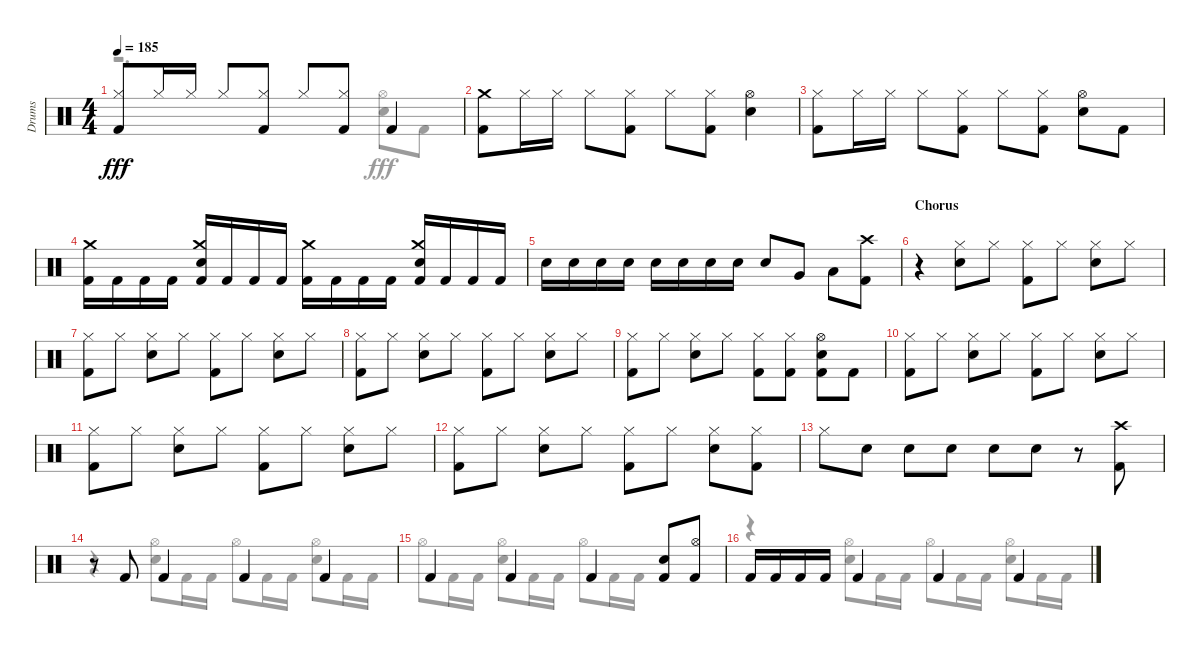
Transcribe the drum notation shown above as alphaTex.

\track ("Drums" "Drums") {instrument percussion}
\staff {score}
\articulation defaults
\voice
\ts (4 4)
\tempo 185
\clef neutral
\ks aminor
("Kick (hit) 2" "Hi-Hat (closed)").8{dy fff} "Hi-Hat (closed)".16 "Hi-Hat (closed)".16 "Hi-Hat (closed)".8 ("Kick (hit) 2" "Hi-Hat (closed)").8 "Hi-Hat (closed)".8 ("Kick (hit) 2" "Hi-Hat (closed)").8 "Kick (hit) 2".4 |
("Kick (hit) 2" "Crash medium (hit)").8 "Hi-Hat (closed)".16 "Hi-Hat (closed)".16 "Hi-Hat (closed)".8 ("Hi-Hat (closed)" "Kick (hit) 2").8 "Hi-Hat (closed)".8 ("Kick (hit) 2" "Hi-Hat (closed)").8 ("Snare (hit) 2" "Hi-Hat (open)").4 |
("Kick (hit) 2" "Hi-Hat (closed)").8 "Hi-Hat (closed)".16 "Hi-Hat (closed)".16 "Hi-Hat (closed)".8 ("Hi-Hat (closed)" "Kick (hit) 2").8 "Hi-Hat (closed)".8 ("Hi-Hat (closed)" "Kick (hit) 2").8 ("Hi-Hat (open)" "Snare (hit) 2").8 "Kick (hit) 2".8 |
("Crash medium (hit)" "Kick (hit) 2").16 "Kick (hit) 2".16 "Kick (hit) 2".16 "Kick (hit) 2".16 ("Crash medium (hit)" "Snare (hit) 2" "Kick (hit) 2").16 "Kick (hit) 2".16 "Kick (hit) 2".16 "Kick (hit) 2".16 ("Crash medium (hit)" "Kick (hit) 2").16 "Kick (hit) 2".16 "Kick (hit) 2".16 "Kick (hit) 2".16 ("Kick (hit) 2" "Snare (hit) 2" "Crash medium (hit)").16 "Kick (hit) 2".16 "Kick (hit) 2".16 "Kick (hit) 2".16 |
"Snare (hit) 2".16 "Snare (hit) 2".16 "Snare (hit) 2".16 "Snare (hit) 2".16 "Snare (hit) 2".16 "Snare (hit) 2".16 "Snare (hit) 2".16 "Snare (hit) 2".16 "Snare (hit) 2".8 "Very Low Tom (hit)".8 "Low Floor Tom (hit)".8 ("Crash high (hit)" "Kick (hit) 2").8 |
\section ("" "Chorus")
r.4 ("Snare (hit) 2" "Hi-Hat (closed)").8 "Hi-Hat (closed)".8 ("Kick (hit) 2" "Hi-Hat (closed)").8 "Hi-Hat (closed)".8 ("Hi-Hat (closed)" "Snare (hit) 2").8 "Hi-Hat (closed)".8 |
("Hi-Hat (closed)" "Kick (hit) 2").8 "Hi-Hat (closed)".8 ("Snare (hit) 2" "Hi-Hat (closed)").8 "Hi-Hat (closed)".8 ("Kick (hit) 2" "Hi-Hat (closed)").8 "Hi-Hat (closed)".8 ("Snare (hit) 2" "Hi-Hat (closed)").8 "Hi-Hat (closed)".8 |
("Kick (hit) 2" "Hi-Hat (closed)").8 "Hi-Hat (closed)".8 ("Hi-Hat (closed)" "Snare (hit) 2").8 "Hi-Hat (closed)".8 ("Kick (hit) 2" "Hi-Hat (closed)").8 "Hi-Hat (closed)".8 ("Hi-Hat (closed)" "Snare (hit) 2").8 "Hi-Hat (closed)".8 |
("Hi-Hat (closed)" "Kick (hit) 2").8 "Hi-Hat (closed)".8 ("Snare (hit) 2" "Hi-Hat (closed)").8 "Hi-Hat (closed)".8 ("Hi-Hat (closed)" "Kick (hit) 2").8 ("Hi-Hat (closed)" "Kick (hit) 2").8 ("Kick (hit) 2" "Snare (hit) 2" "Hi-Hat (open)").8 "Kick (hit) 2".8 |
("Hi-Hat (closed)" "Kick (hit) 2").8 "Hi-Hat (closed)".8 ("Hi-Hat (closed)" "Snare (hit) 2").8 "Hi-Hat (closed)".8 ("Kick (hit) 2" "Hi-Hat (closed)").8 "Hi-Hat (closed)".8 ("Snare (hit) 2" "Hi-Hat (closed)").8 "Hi-Hat (closed)".8 |
("Kick (hit) 2" "Hi-Hat (closed)").8 "Hi-Hat (closed)".8 ("Hi-Hat (closed)" "Snare (hit) 2").8 "Hi-Hat (closed)".8 ("Kick (hit) 2" "Hi-Hat (closed)").8 "Hi-Hat (closed)".8 ("Hi-Hat (closed)" "Snare (hit) 2").8 "Hi-Hat (closed)".8 |
("Hi-Hat (closed)" "Kick (hit) 2").8 "Hi-Hat (closed)".8 ("Snare (hit) 2" "Hi-Hat (closed)").8 "Hi-Hat (closed)".8 ("Hi-Hat (closed)" "Kick (hit) 2").8 "Hi-Hat (closed)".8 ("Snare (hit) 2" "Hi-Hat (closed)").8 ("Kick (hit) 2" "Hi-Hat (closed)").8 |
"Hi-Hat (closed)".8 "Snare (hit) 2".8 "Snare (hit) 2".8 "Snare (hit) 2".8 "Snare (hit) 2".8 "Snare (hit) 2".8 r.8 ("Kick (hit) 2" "Crash high (hit)").8 |
r.8 "Kick (hit) 2".8 "Kick (hit) 2".4 "Kick (hit) 2".4 "Kick (hit) 2".4 |
"Kick (hit) 2".4 "Kick (hit) 2".4 "Kick (hit) 2".4 ("Snare (hit) 2" "Kick (hit) 2").8 ("Kick (hit) 2" "Hi-Hat (open)").8 |
"Kick (hit) 2".16 "Kick (hit) 2".16 "Kick (hit) 2".16 "Kick (hit) 2".16 "Kick (hit) 2".4 "Kick (hit) 2".4 "Kick (hit) 2".4
\voice
\clef neutral
\ottava regular
\simile none
\ks aminor
r.2{d dy fff} ("Snare (hit) 2" "Hi-Hat (open)").8 "Kick (hit) 2".8 |
|
|
|
|
|
|
|
|
|
|
|
|
r.4 ("Snare (hit) 2" "Hi-Hat (open)").8 "Kick (hit) 2".16 "Kick (hit) 2".16 "Hi-Hat (open)".8 "Kick (hit) 2".16 "Kick (hit) 2".16 ("Snare (hit) 2" "Hi-Hat (open)").8 "Kick (hit) 2".16 "Kick (hit) 2".16 |
"Hi-Hat (open)".8 "Kick (hit) 2".16 "Kick (hit) 2".16 ("Hi-Hat (open)" "Snare (hit) 2").8 "Kick (hit) 2".16 "Kick (hit) 2".16 "Hi-Hat (open)".8 "Kick (hit) 2".16 "Kick (hit) 2".16 |
r.4 ("Hi-Hat (open)" "Snare (hit) 2").8 "Kick (hit) 2".16 "Kick (hit) 2".16 "Hi-Hat (open)".8 "Kick (hit) 2".16 "Kick (hit) 2".16 ("Snare (hit) 2" "Hi-Hat (open)").8 "Kick (hit) 2".16 "Kick (hit) 2".16
